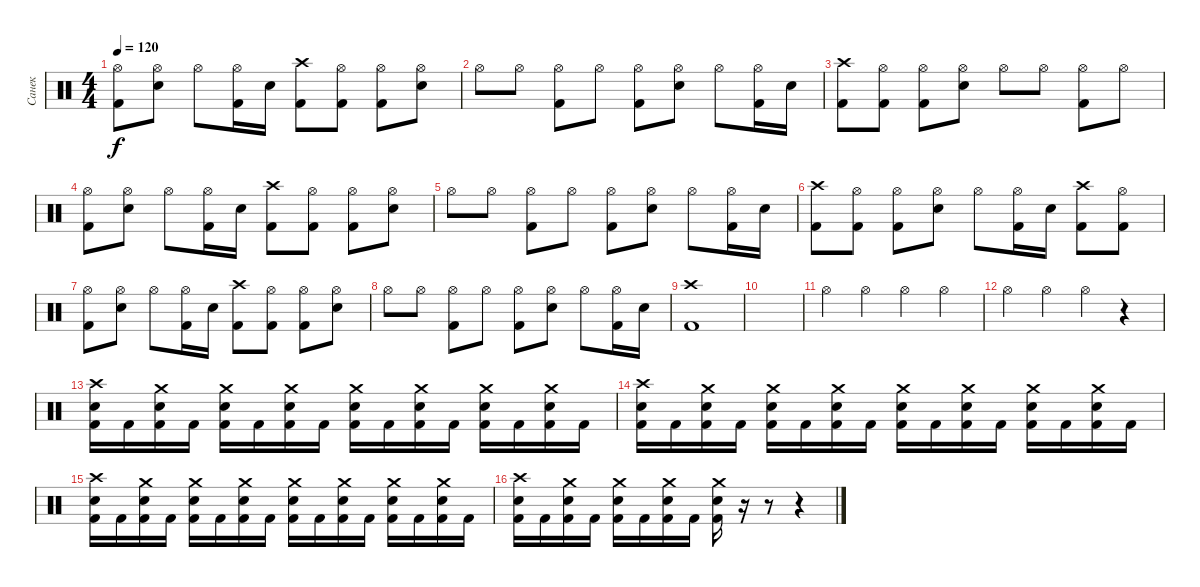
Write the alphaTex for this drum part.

\track ("Санек" "Санек") {instrument percussion}
\staff {score}
\articulation defaults
\ts (4 4)
\tempo 120
\clef neutral
\ks c
("Hi-Hat (open)" "Kick (hit) 2").8{dy f} ("Hi-Hat (open)" "Electric Snare (hit)").8 "Hi-Hat (open)".8 ("Hi-Hat (open)" "Kick (hit) 2").16 "Electric Snare (hit)".16 ("Crash high (hit)" "Kick (hit) 2").8 ("Hi-Hat (open)" "Kick (hit) 2").8 ("Hi-Hat (open)" "Kick (hit) 2").8 ("Hi-Hat (open)" "Electric Snare (hit)").8 |
"Hi-Hat (open)".8 "Hi-Hat (open)".8 ("Hi-Hat (open)" "Kick (hit) 2").8 "Hi-Hat (open)".8 ("Hi-Hat (open)" "Kick (hit) 2").8 ("Hi-Hat (open)" "Electric Snare (hit)").8 "Hi-Hat (open)".8 ("Hi-Hat (open)" "Kick (hit) 2").16 "Electric Snare (hit)".16 |
("Crash high (hit)" "Kick (hit) 2").8 ("Hi-Hat (open)" "Kick (hit) 2").8 ("Hi-Hat (open)" "Kick (hit) 2").8 ("Hi-Hat (open)" "Electric Snare (hit)").8 "Hi-Hat (open)".8 "Hi-Hat (open)".8 ("Hi-Hat (open)" "Kick (hit) 2").8 "Hi-Hat (open)".8 |
("Hi-Hat (open)" "Kick (hit) 2").8 ("Hi-Hat (open)" "Electric Snare (hit)").8 "Hi-Hat (open)".8 ("Hi-Hat (open)" "Kick (hit) 2").16 "Electric Snare (hit)".16 ("Crash high (hit)" "Kick (hit) 2").8 ("Hi-Hat (open)" "Kick (hit) 2").8 ("Hi-Hat (open)" "Kick (hit) 2").8 ("Hi-Hat (open)" "Electric Snare (hit)").8 |
"Hi-Hat (open)".8 "Hi-Hat (open)".8 ("Hi-Hat (open)" "Kick (hit) 2").8 "Hi-Hat (open)".8 ("Hi-Hat (open)" "Kick (hit) 2").8 ("Hi-Hat (open)" "Electric Snare (hit)").8 "Hi-Hat (open)".8 ("Hi-Hat (open)" "Kick (hit) 2").16 "Electric Snare (hit)".16 |
("Crash high (hit)" "Kick (hit) 2").8 ("Hi-Hat (open)" "Kick (hit) 2").8 ("Hi-Hat (open)" "Kick (hit) 2").8 ("Hi-Hat (open)" "Electric Snare (hit)").8 "Hi-Hat (open)".8 ("Hi-Hat (open)" "Kick (hit) 2").16 "Electric Snare (hit)".16 ("Crash high (hit)" "Kick (hit) 2").8 ("Hi-Hat (open)" "Kick (hit) 2").8 |
("Hi-Hat (open)" "Kick (hit) 2").8 ("Hi-Hat (open)" "Electric Snare (hit)").8 "Hi-Hat (open)".8 ("Hi-Hat (open)" "Kick (hit) 2").16 "Electric Snare (hit)".16 ("Crash high (hit)" "Kick (hit) 2").8 ("Hi-Hat (open)" "Kick (hit) 2").8 ("Hi-Hat (open)" "Kick (hit) 2").8 ("Hi-Hat (open)" "Electric Snare (hit)").8 |
"Hi-Hat (open)".8 "Hi-Hat (open)".8 ("Hi-Hat (open)" "Kick (hit) 2").8 "Hi-Hat (open)".8 ("Hi-Hat (open)" "Kick (hit) 2").8 ("Hi-Hat (open)" "Electric Snare (hit)").8 "Hi-Hat (open)".8 ("Hi-Hat (open)" "Kick (hit) 2").16 "Electric Snare (hit)".16 |
("Crash high (hit)" "Kick (hit) 2").1 |
|
"Hi-Hat (open)".4 "Hi-Hat (open)".4 "Hi-Hat (open)".4 "Hi-Hat (open)".4 |
"Hi-Hat (open)".4 "Hi-Hat (open)".4 "Hi-Hat (open)".4 r.4 |
("Electric Snare (hit)" "Crash high (hit)" "Kick (hit) 2").16 "Kick (hit) 2".16 ("Electric Snare (hit)" "Crash medium (hit)" "Kick (hit) 2").16 "Kick (hit) 2".16 ("Electric Snare (hit)" "Crash medium (hit)" "Kick (hit) 2").16 "Kick (hit) 2".16 ("Electric Snare (hit)" "Crash medium (hit)" "Kick (hit) 2").16 "Kick (hit) 2".16 ("Electric Snare (hit)" "Crash medium (hit)" "Kick (hit) 2").16 "Kick (hit) 2".16 ("Electric Snare (hit)" "Crash medium (hit)" "Kick (hit) 2").16 "Kick (hit) 2".16 ("Electric Snare (hit)" "Crash medium (hit)" "Kick (hit) 2").16 "Kick (hit) 2".16 ("Electric Snare (hit)" "Crash medium (hit)" "Kick (hit) 2").16 "Kick (hit) 2".16 |
("Electric Snare (hit)" "Crash high (hit)" "Kick (hit) 2").16 "Kick (hit) 2".16 ("Electric Snare (hit)" "Crash medium (hit)" "Kick (hit) 2").16 "Kick (hit) 2".16 ("Electric Snare (hit)" "Crash medium (hit)" "Kick (hit) 2").16 "Kick (hit) 2".16 ("Electric Snare (hit)" "Crash medium (hit)" "Kick (hit) 2").16 "Kick (hit) 2".16 ("Electric Snare (hit)" "Crash medium (hit)" "Kick (hit) 2").16 "Kick (hit) 2".16 ("Electric Snare (hit)" "Crash medium (hit)" "Kick (hit) 2").16 "Kick (hit) 2".16 ("Electric Snare (hit)" "Crash medium (hit)" "Kick (hit) 2").16 "Kick (hit) 2".16 ("Electric Snare (hit)" "Crash medium (hit)" "Kick (hit) 2").16 "Kick (hit) 2".16 |
("Electric Snare (hit)" "Crash high (hit)" "Kick (hit) 2").16 "Kick (hit) 2".16 ("Electric Snare (hit)" "Crash medium (hit)" "Kick (hit) 2").16 "Kick (hit) 2".16 ("Electric Snare (hit)" "Crash medium (hit)" "Kick (hit) 2").16 "Kick (hit) 2".16 ("Electric Snare (hit)" "Crash medium (hit)" "Kick (hit) 2").16 "Kick (hit) 2".16 ("Electric Snare (hit)" "Crash medium (hit)" "Kick (hit) 2").16 "Kick (hit) 2".16 ("Electric Snare (hit)" "Crash medium (hit)" "Kick (hit) 2").16 "Kick (hit) 2".16 ("Electric Snare (hit)" "Crash medium (hit)" "Kick (hit) 2").16 "Kick (hit) 2".16 ("Electric Snare (hit)" "Crash medium (hit)" "Kick (hit) 2").16 "Kick (hit) 2".16 |
("Electric Snare (hit)" "Crash high (hit)" "Kick (hit) 2").16 "Kick (hit) 2".16 ("Electric Snare (hit)" "Crash medium (hit)" "Kick (hit) 2").16 "Kick (hit) 2".16 ("Electric Snare (hit)" "Crash medium (hit)" "Kick (hit) 2").16 "Kick (hit) 2".16 ("Electric Snare (hit)" "Crash medium (hit)" "Kick (hit) 2").16 "Kick (hit) 2".16 ("Electric Snare (hit)" "Crash medium (hit)" "Kick (hit) 2").16 r.16 r.8 r.4
